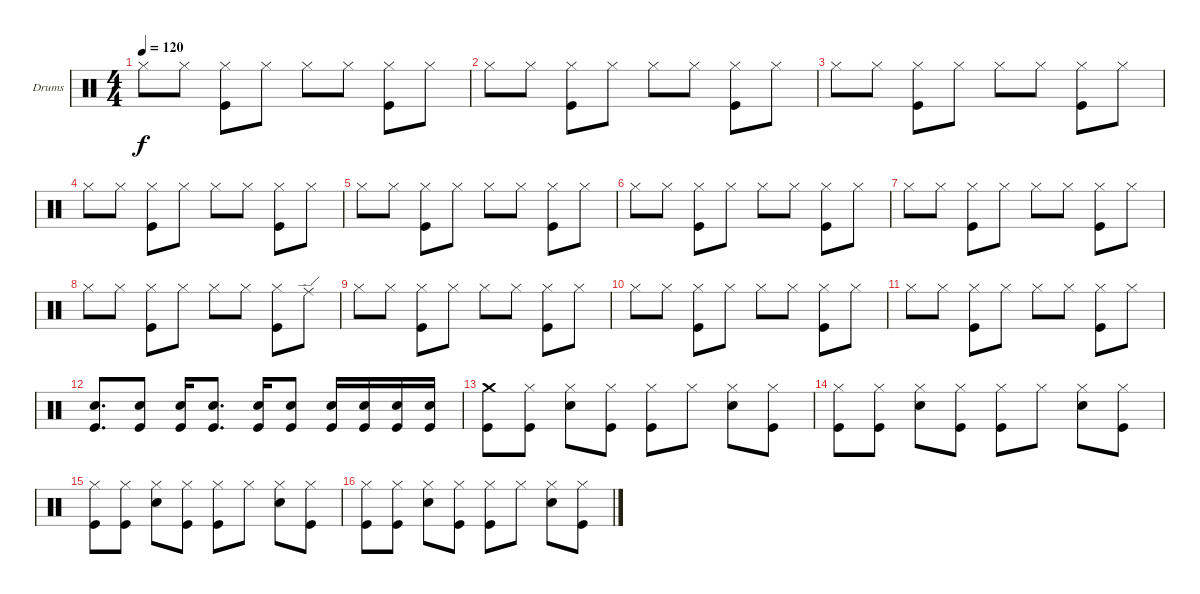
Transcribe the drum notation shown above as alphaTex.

\defaultSystemsLayout 4
\bracketExtendMode groupsimilarinstruments
\firstSystemTrackNameOrientation horizontal
\otherSystemsTrackNameOrientation horizontal
\track ("Stefan Schwarzmann" "Drums") {instrument percussion}
\staff {score}
\articulation defaults
\ts (4 4)
\tempo 120
\clef neutral
\ks c "Hi-Hat (closed)".8{dy f} "Hi-Hat (closed)".8
("Hi-Hat (closed)" "Kick (hit)").8 "Hi-Hat (closed)".8 "Hi-Hat (closed)".8 "Hi-Hat (closed)".8 ("Hi-Hat (closed)" "Kick (hit)").8 "Hi-Hat (closed)".8 |
"Hi-Hat (closed)".8 "Hi-Hat (closed)".8 ("Hi-Hat (closed)" "Kick (hit)").8 "Hi-Hat (closed)".8 "Hi-Hat (closed)".8 "Hi-Hat (closed)".8 ("Hi-Hat (closed)" "Kick (hit)").8 "Hi-Hat (closed)".8 |
"Hi-Hat (closed)".8 "Hi-Hat (closed)".8 ("Hi-Hat (closed)" "Kick (hit)").8 "Hi-Hat (closed)".8 "Hi-Hat (closed)".8 "Hi-Hat (closed)".8 ("Hi-Hat (closed)" "Kick (hit)").8 "Hi-Hat (closed)".8 |
"Hi-Hat (closed)".8 "Hi-Hat (closed)".8 ("Hi-Hat (closed)" "Kick (hit)").8 "Hi-Hat (closed)".8 "Hi-Hat (closed)".8 "Hi-Hat (closed)".8 ("Hi-Hat (closed)" "Kick (hit)").8 "Hi-Hat (closed)".8 |
"Hi-Hat (closed)".8 "Hi-Hat (closed)".8 ("Hi-Hat (closed)" "Kick (hit)").8 "Hi-Hat (closed)".8 "Hi-Hat (closed)".8 "Hi-Hat (closed)".8 ("Hi-Hat (closed)" "Kick (hit)").8 "Hi-Hat (closed)".8 |
"Hi-Hat (closed)".8 "Hi-Hat (closed)".8 ("Hi-Hat (closed)" "Kick (hit)").8 "Hi-Hat (closed)".8 "Hi-Hat (closed)".8 "Hi-Hat (closed)".8 ("Hi-Hat (closed)" "Kick (hit)").8 "Hi-Hat (closed)".8 |
"Hi-Hat (closed)".8 "Hi-Hat (closed)".8 ("Hi-Hat (closed)" "Kick (hit)").8 "Hi-Hat (closed)".8 "Hi-Hat (closed)".8 "Hi-Hat (closed)".8 ("Hi-Hat (closed)" "Kick (hit)").8 "Hi-Hat (closed)".8 |
"Hi-Hat (closed)".8 "Hi-Hat (closed)".8 ("Hi-Hat (closed)" "Kick (hit)").8 "Hi-Hat (closed)".8 "Hi-Hat (closed)".8 "Hi-Hat (closed)".8 ("Hi-Hat (closed)" "Kick (hit)").8 "Ride (edge)".8 |
"Hi-Hat (closed)".8 "Hi-Hat (closed)".8 ("Hi-Hat (closed)" "Kick (hit)").8 "Hi-Hat (closed)".8 "Hi-Hat (closed)".8 "Hi-Hat (closed)".8 ("Hi-Hat (closed)" "Kick (hit)").8 "Hi-Hat (closed)".8 |
"Hi-Hat (closed)".8 "Hi-Hat (closed)".8 ("Hi-Hat (closed)" "Kick (hit)").8 "Hi-Hat (closed)".8 "Hi-Hat (closed)".8 "Hi-Hat (closed)".8 ("Hi-Hat (closed)" "Kick (hit)").8 "Hi-Hat (closed)".8 |
"Hi-Hat (closed)".8 "Hi-Hat (closed)".8 ("Hi-Hat (closed)" "Kick (hit)").8 "Hi-Hat (closed)".8 "Hi-Hat (closed)".8 "Hi-Hat (closed)".8 ("Hi-Hat (closed)" "Kick (hit)").8 "Hi-Hat (closed)".8 |
("Snare (hit) 2" "Kick (hit)").8{d} ("Snare (hit) 2" "Kick (hit)").8 ("Snare (hit) 2" "Kick (hit)").16 ("Snare (hit) 2" "Kick (hit)").8{d} ("Snare (hit) 2" "Kick (hit)").16 ("Snare (hit) 2" "Kick (hit)").8 ("Snare (hit) 2" "Kick (hit)").16 ("Snare (hit) 2" "Kick (hit)").16 ("Snare (hit) 2" "Kick (hit)").16 ("Snare (hit) 2" "Kick (hit)").16 |
("Crash medium (hit)" "Kick (hit)").8 ("Hi-Hat (closed)" "Kick (hit)").8 ("Hi-Hat (closed)" "Snare (hit) 2").8 ("Hi-Hat (closed)" "Kick (hit)").8 ("Hi-Hat (closed)" "Kick (hit)").8 "Hi-Hat (closed)".8 ("Hi-Hat (closed)" "Snare (hit) 2").8 ("Hi-Hat (closed)" "Kick (hit)").8 |
("Hi-Hat (closed)" "Kick (hit)").8 ("Hi-Hat (closed)" "Kick (hit)").8 ("Hi-Hat (closed)" "Snare (hit) 2").8 ("Hi-Hat (closed)" "Kick (hit)").8 ("Hi-Hat (closed)" "Kick (hit)").8 "Hi-Hat (closed)".8 ("Hi-Hat (closed)" "Snare (hit) 2").8 ("Hi-Hat (closed)" "Kick (hit)").8 |
("Hi-Hat (closed)" "Kick (hit)").8 ("Hi-Hat (closed)" "Kick (hit)").8 ("Hi-Hat (closed)" "Snare (hit) 2").8 ("Hi-Hat (closed)" "Kick (hit)").8 ("Hi-Hat (closed)" "Kick (hit)").8 "Hi-Hat (closed)".8 ("Hi-Hat (closed)" "Snare (hit) 2").8 ("Hi-Hat (closed)" "Kick (hit)").8 |
("Hi-Hat (closed)" "Kick (hit)").8 ("Hi-Hat (closed)" "Kick (hit)").8 ("Hi-Hat (closed)" "Snare (hit) 2").8 ("Hi-Hat (closed)" "Kick (hit)").8 ("Hi-Hat (closed)" "Kick (hit)").8 "Hi-Hat (closed)".8 ("Hi-Hat (closed)" "Snare (hit) 2").8 ("Hi-Hat (closed)" "Kick (hit)").8
